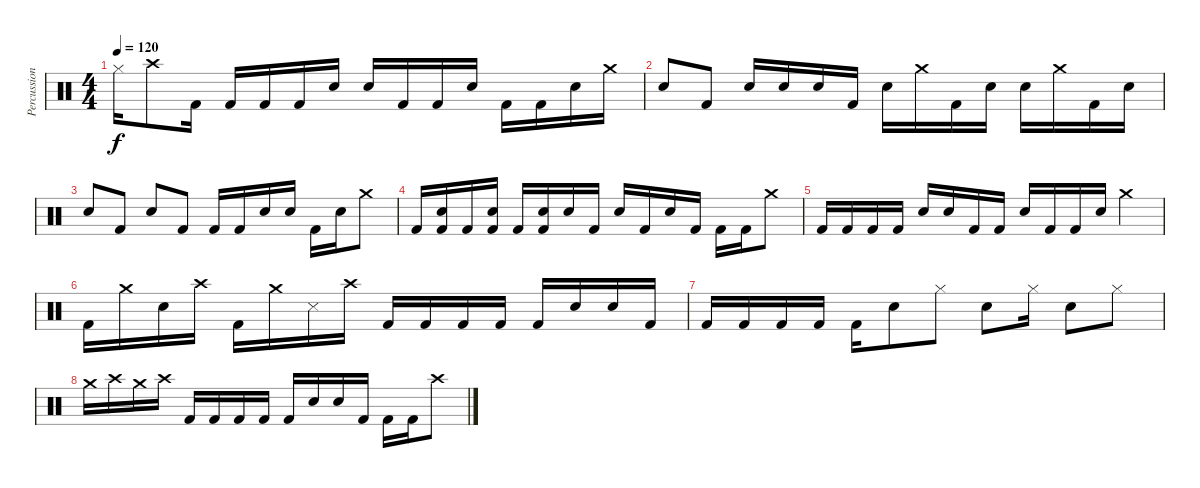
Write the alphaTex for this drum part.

\track ("Percussioni" "Percussion") {instrument percussion}
\staff {score}
\articulation defaults
\ts (4 4)
\tempo 120
\clef neutral
\ks c "Hi-Hat (closed)".16{dy f} "Crash high (hit)".8 "Kick (hit) 2".16 "Kick (hit) 2".16 "Kick (hit) 2".16 "Kick (hit) 2".16 "Snare (hit) 2".16 "Snare (hit) 2".16 "Kick (hit) 2".16 "Kick (hit) 2".16 "Snare (hit) 2".16 "Kick (hit) 2".16 "Kick (hit) 2".16 "Snare (hit) 2".16 "Crash medium (hit)".16
|
"Snare (hit) 2".8 "Kick (hit) 2".8 "Snare (hit) 2".16 "Snare (hit) 2".16 "Snare (hit) 2".16 "Kick (hit) 2".16 "Snare (hit) 2".16 "Crash medium (hit)".16 "Kick (hit) 2".16 "Snare (hit) 2".16 "Snare (hit) 2".16 "Crash medium (hit)".16 "Kick (hit) 2".16 "Snare (hit) 2".16 |
"Snare (hit) 2".8 "Kick (hit) 2".8 "Snare (hit) 2".8 "Kick (hit) 2".8 "Kick (hit) 2".16 "Kick (hit) 2".16 "Snare (hit) 2".16 "Snare (hit) 2".16 "Kick (hit) 2".16 "Snare (hit) 2".16 "Crash medium (hit)".8 |
"Kick (hit) 2".16 ("Kick (hit) 2" "Snare (hit) 2").16 "Kick (hit) 2".16 ("Kick (hit) 2" "Snare (hit) 2").16 "Kick (hit) 2".16 ("Kick (hit) 2" "Snare (hit) 2").16 "Snare (hit) 2".16 "Kick (hit) 2".16 "Snare (hit) 2".16 "Kick (hit) 2".16 "Snare (hit) 2".16 "Kick (hit) 2".16 "Kick (hit) 2".16 "Kick (hit) 2".16 "Crash medium (hit)".8 |
"Kick (hit) 2".16 "Kick (hit) 2".16 "Kick (hit) 2".16 "Kick (hit) 2".16 "Snare (hit) 2".16 "Snare (hit) 2".16 "Kick (hit) 2".16 "Kick (hit) 2".16 "Snare (hit) 2".16 "Kick (hit) 2".16 "Kick (hit) 2".16 "Snare (hit) 2".16 "Crash medium (hit)".4 |
"Kick (hit) 2".16 "Crash medium (hit)".16 "Snare (hit) 2".16 "Crash high (hit)".16 "Kick (hit) 2".16 "Crash medium (hit)".16 "Snare (side stick) 3".16 "Crash high (hit)".16 "Kick (hit) 2".16 "Kick (hit) 2".16 "Kick (hit) 2".16 "Kick (hit) 2".16 "Kick (hit) 2".16 "Snare (hit) 2".16 "Snare (hit) 2".16 "Kick (hit) 2".16 |
"Kick (hit) 2".16 "Kick (hit) 2".16 "Kick (hit) 2".16 "Kick (hit) 2".16 "Kick (hit) 2".16 "Snare (hit) 2".8 "Hi-Hat (closed)".8 "Snare (hit) 2".8 "Hi-Hat (closed)".16 "Snare (hit) 2".8 "Hi-Hat (closed)".8 |
"Crash medium (hit)".16 "Crash high (hit)".16 "Crash medium (hit)".16 "Crash high (hit)".16 "Kick (hit) 2".16 "Kick (hit) 2".16 "Kick (hit) 2".16 "Kick (hit) 2".16 "Kick (hit) 2".16 "Snare (hit) 2".16 "Snare (hit) 2".16 "Kick (hit) 2".16 "Kick (hit) 2".16 "Kick (hit) 2".16 "Crash high (hit)".8
